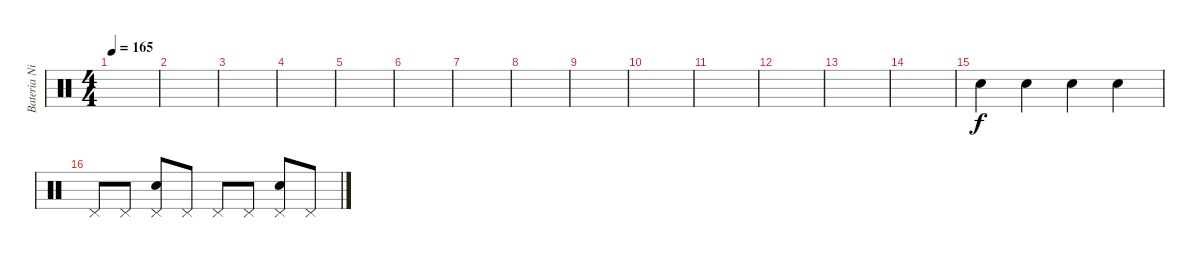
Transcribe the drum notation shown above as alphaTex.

\track ("Bateria Nicolas Cabrera" "Bateria Ni") {instrument percussion}
\staff {score}
\articulation defaults
\ts (4 4)
\tempo 165
\clef neutral
\ks c
|
|
|
|
|
|
|
|
|
|
|
|
|
|
"Snare (hit) 2".4 "Snare (hit) 2".4 "Snare (hit) 2".4 "Snare (hit) 2".4 |
"Pedal Hi-Hat (hit)".8 "Pedal Hi-Hat (hit)".8 ("Electric Snare (hit)" "Pedal Hi-Hat (hit)").8 "Pedal Hi-Hat (hit)".8 "Pedal Hi-Hat (hit)".8 "Pedal Hi-Hat (hit)".8 ("Electric Snare (hit)" "Pedal Hi-Hat (hit)").8 "Pedal Hi-Hat (hit)".8
